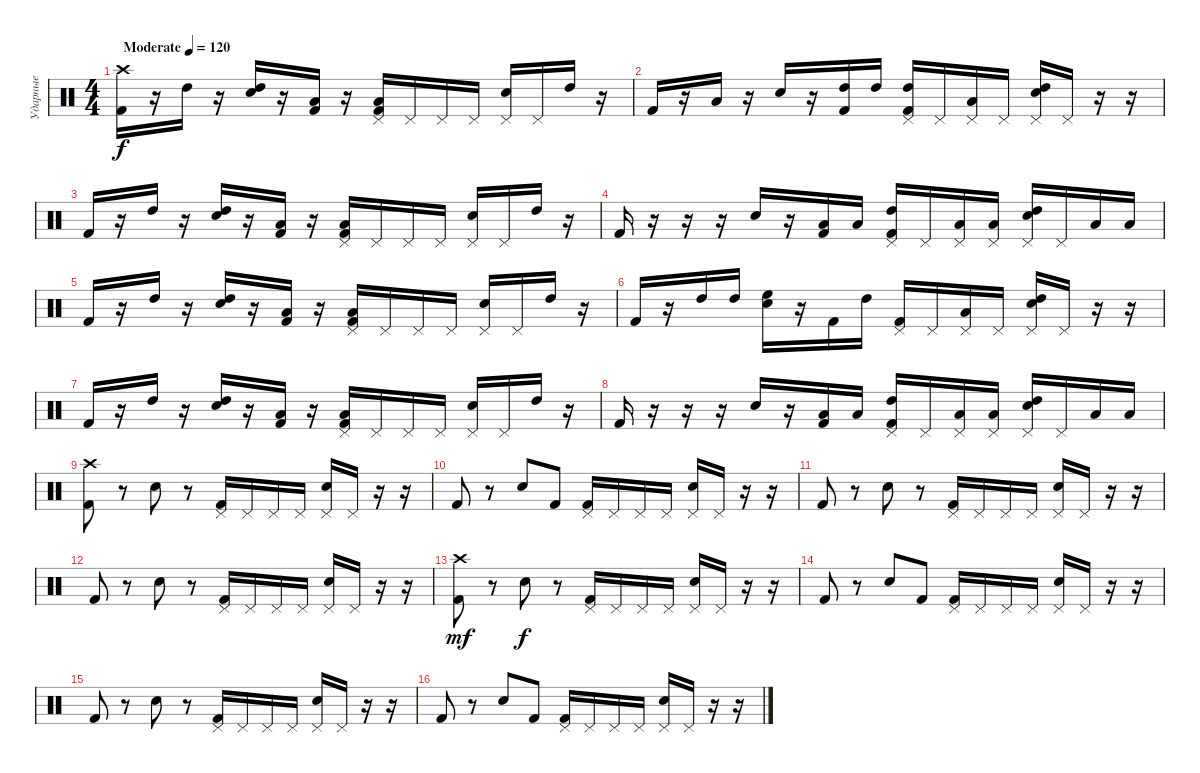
\track ("Ударные" "Ударные") {instrument percussion}
\staff {score}
\articulation defaults
\ts (4 4)
\tempo (120 "Moderate")
\clef neutral
\ks c
("Crash high (hit)" "Kick (hit) 2").16{dy f} r.16 "High Tom (hit)".16 r.16 ("High Tom (hit)" "Electric Snare (hit)").16 r.16 ("Low Tom (hit)" "Kick (hit) 2").16 r.16 ("Pedal Hi-Hat (hit)" "Low Tom (hit)" "Kick (hit) 2").16 "Pedal Hi-Hat (hit)".16 "Pedal Hi-Hat (hit)".16 "Pedal Hi-Hat (hit)".16 ("Pedal Hi-Hat (hit)" "Electric Snare (hit)").16 "Pedal Hi-Hat (hit)".16 "High Tom (hit)".16 r.16 |
"Kick (hit) 2".16 r.16 "Low Tom (hit)".16 r.16 "Electric Snare (hit)".16 r.16 ("High Tom (hit)" "Kick (hit) 2").16 "High Tom (hit)".16 ("Pedal Hi-Hat (hit)" "High Tom (hit)" "Kick (hit) 2").16 "Pedal Hi-Hat (hit)".16 ("Pedal Hi-Hat (hit)" "Low Tom (hit)").16 "Pedal Hi-Hat (hit)".16 ("Pedal Hi-Hat (hit)" "High Tom (hit)" "Electric Snare (hit)").16 "Pedal Hi-Hat (hit)".16 r.16 r.16 |
"Kick (hit) 2".16 r.16 "High Tom (hit)".16 r.16 ("High Tom (hit)" "Electric Snare (hit)").16 r.16 ("Low Tom (hit)" "Kick (hit) 2").16 r.16 ("Pedal Hi-Hat (hit)" "Low Tom (hit)" "Kick (hit) 2").16 "Pedal Hi-Hat (hit)".16 "Pedal Hi-Hat (hit)".16 "Pedal Hi-Hat (hit)".16 ("Pedal Hi-Hat (hit)" "Electric Snare (hit)").16 "Pedal Hi-Hat (hit)".16 "High Tom (hit)".16 r.16 |
"Kick (hit) 2".16 r.16 r.16 r.16 "Electric Snare (hit)".16 r.16 ("Low Tom (hit)" "Kick (hit) 2").16 "Low Tom (hit)".16 ("Pedal Hi-Hat (hit)" "High Tom (hit)" "Kick (hit) 2").16 "Pedal Hi-Hat (hit)".16 ("Pedal Hi-Hat (hit)" "Low Tom (hit)").16 ("Pedal Hi-Hat (hit)" "Low Tom (hit)").16 ("Pedal Hi-Hat (hit)" "High Tom (hit)" "Electric Snare (hit)").16 "Pedal Hi-Hat (hit)".16 "Low Tom (hit)".16 "Low Tom (hit)".16 |
"Kick (hit) 2".16 r.16 "High Tom (hit)".16 r.16 ("High Tom (hit)" "Electric Snare (hit)").16 r.16 ("Low Tom (hit)" "Kick (hit) 2").16 r.16 ("Pedal Hi-Hat (hit)" "Low Tom (hit)" "Kick (hit) 2").16 "Pedal Hi-Hat (hit)".16 "Pedal Hi-Hat (hit)".16 "Pedal Hi-Hat (hit)".16 ("Pedal Hi-Hat (hit)" "Electric Snare (hit)").16 "Pedal Hi-Hat (hit)".16 "High Tom (hit)".16 r.16 |
"Kick (hit) 2".16 r.16 "High Tom (hit)".16 "High Tom (hit)".16 ("High Floor Tom (hit)" "Electric Snare (hit)").16 r.16 "Kick (hit) 2".16 "High Tom (hit)".16 ("Pedal Hi-Hat (hit)" "Kick (hit) 2").16 "Pedal Hi-Hat (hit)".16 ("Pedal Hi-Hat (hit)" "Low Tom (hit)").16 "Pedal Hi-Hat (hit)".16 ("Pedal Hi-Hat (hit)" "High Tom (hit)" "Electric Snare (hit)").16 "Pedal Hi-Hat (hit)".16 r.16 r.16 |
"Kick (hit) 2".16 r.16 "High Tom (hit)".16 r.16 ("High Tom (hit)" "Electric Snare (hit)").16 r.16 ("Low Tom (hit)" "Kick (hit) 2").16 r.16 ("Pedal Hi-Hat (hit)" "Low Tom (hit)" "Kick (hit) 2").16 "Pedal Hi-Hat (hit)".16 "Pedal Hi-Hat (hit)".16 "Pedal Hi-Hat (hit)".16 ("Pedal Hi-Hat (hit)" "Electric Snare (hit)").16 "Pedal Hi-Hat (hit)".16 "High Tom (hit)".16 r.16 |
"Kick (hit) 2".16 r.16 r.16 r.16 "Electric Snare (hit)".16 r.16 ("Low Tom (hit)" "Kick (hit) 2").16 "Low Tom (hit)".16 ("Pedal Hi-Hat (hit)" "High Tom (hit)" "Kick (hit) 2").16 "Pedal Hi-Hat (hit)".16 ("Pedal Hi-Hat (hit)" "Low Tom (hit)").16 ("Pedal Hi-Hat (hit)" "Low Tom (hit)").16 ("Pedal Hi-Hat (hit)" "High Tom (hit)" "Electric Snare (hit)").16 "Pedal Hi-Hat (hit)".16 "Low Tom (hit)".16 "Low Tom (hit)".16 |
("Crash high (hit)" "Kick (hit) 2").8 r.8 "Electric Snare (hit)".8 r.8 ("Pedal Hi-Hat (hit)" "Kick (hit) 2").16 "Pedal Hi-Hat (hit)".16 "Pedal Hi-Hat (hit)".16 "Pedal Hi-Hat (hit)".16 ("Pedal Hi-Hat (hit)" "Electric Snare (hit)").16 "Pedal Hi-Hat (hit)".16 r.16 r.16 |
"Kick (hit) 2".8 r.8 "Electric Snare (hit)".8 "Kick (hit) 2".8 ("Pedal Hi-Hat (hit)" "Kick (hit) 2").16 "Pedal Hi-Hat (hit)".16 "Pedal Hi-Hat (hit)".16 "Pedal Hi-Hat (hit)".16 ("Pedal Hi-Hat (hit)" "Electric Snare (hit)").16 "Pedal Hi-Hat (hit)".16 r.16 r.16 |
"Kick (hit) 2".8 r.8 "Electric Snare (hit)".8 r.8 ("Pedal Hi-Hat (hit)" "Kick (hit) 2").16 "Pedal Hi-Hat (hit)".16 "Pedal Hi-Hat (hit)".16 "Pedal Hi-Hat (hit)".16 ("Pedal Hi-Hat (hit)" "Electric Snare (hit)").16 "Pedal Hi-Hat (hit)".16 r.16 r.16 |
"Kick (hit) 2".8 r.8 "Electric Snare (hit)".8 r.8 ("Pedal Hi-Hat (hit)" "Kick (hit) 2").16 "Pedal Hi-Hat (hit)".16 "Pedal Hi-Hat (hit)".16 "Pedal Hi-Hat (hit)".16 ("Pedal Hi-Hat (hit)" "Electric Snare (hit)").16 "Pedal Hi-Hat (hit)".16 r.16 r.16 |
("Crash high (hit)" "Kick (hit) 2").8{dy mf} r.8 "Electric Snare (hit)".8{dy f} r.8 ("Pedal Hi-Hat (hit)" "Kick (hit) 2").16 "Pedal Hi-Hat (hit)".16 "Pedal Hi-Hat (hit)".16 "Pedal Hi-Hat (hit)".16 ("Pedal Hi-Hat (hit)" "Electric Snare (hit)").16 "Pedal Hi-Hat (hit)".16 r.16 r.16 |
"Kick (hit) 2".8 r.8 "Electric Snare (hit)".8 "Kick (hit) 2".8 ("Pedal Hi-Hat (hit)" "Kick (hit) 2").16 "Pedal Hi-Hat (hit)".16 "Pedal Hi-Hat (hit)".16 "Pedal Hi-Hat (hit)".16 ("Pedal Hi-Hat (hit)" "Electric Snare (hit)").16 "Pedal Hi-Hat (hit)".16 r.16 r.16 |
"Kick (hit) 2".8 r.8 "Electric Snare (hit)".8 r.8 ("Pedal Hi-Hat (hit)" "Kick (hit) 2").16 "Pedal Hi-Hat (hit)".16 "Pedal Hi-Hat (hit)".16 "Pedal Hi-Hat (hit)".16 ("Pedal Hi-Hat (hit)" "Electric Snare (hit)").16 "Pedal Hi-Hat (hit)".16 r.16 r.16 |
"Kick (hit) 2".8 r.8 "Electric Snare (hit)".8 "Kick (hit) 2".8 ("Pedal Hi-Hat (hit)" "Kick (hit) 2").16 "Pedal Hi-Hat (hit)".16 "Pedal Hi-Hat (hit)".16 "Pedal Hi-Hat (hit)".16 ("Pedal Hi-Hat (hit)" "Electric Snare (hit)").16 "Pedal Hi-Hat (hit)".16 r.16 r.16
